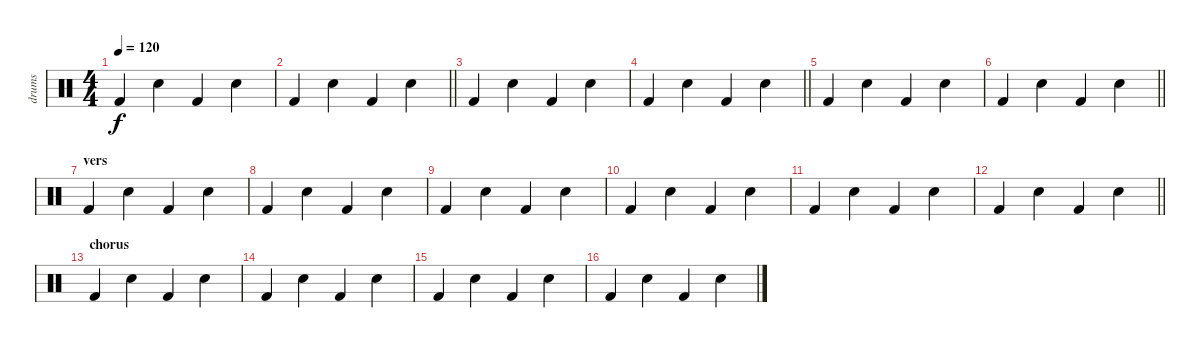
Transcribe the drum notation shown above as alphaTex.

\track ("drums" "drums") {instrument percussion}
\staff {score}
\articulation defaults
\ts (4 4)
\tempo 120
\clef neutral
\ks c "Kick (hit) 2".4{dy f} "Snare (hit) 2".4 "Kick (hit) 2".4 "Snare (hit) 2".4
|
\barLineRight lightlight "Kick (hit) 2".4 "Snare (hit) 2".4 "Kick (hit) 2".4 "Snare (hit) 2".4
|
"Kick (hit) 2".4 "Snare (hit) 2".4 "Kick (hit) 2".4 "Snare (hit) 2".4 |
\barLineRight lightlight "Kick (hit) 2".4 "Snare (hit) 2".4 "Kick (hit) 2".4 "Snare (hit) 2".4
|
"Kick (hit) 2".4 "Snare (hit) 2".4 "Kick (hit) 2".4 "Snare (hit) 2".4 |
\barLineRight lightlight "Kick (hit) 2".4 "Snare (hit) 2".4 "Kick (hit) 2".4 "Snare (hit) 2".4
|
\section ("" "vers")
"Kick (hit) 2".4 "Snare (hit) 2".4 "Kick (hit) 2".4 "Snare (hit) 2".4 |
"Kick (hit) 2".4 "Snare (hit) 2".4 "Kick (hit) 2".4 "Snare (hit) 2".4 |
"Kick (hit) 2".4 "Snare (hit) 2".4 "Kick (hit) 2".4 "Snare (hit) 2".4 |
"Kick (hit) 2".4 "Snare (hit) 2".4 "Kick (hit) 2".4 "Snare (hit) 2".4 |
"Kick (hit) 2".4 "Snare (hit) 2".4 "Kick (hit) 2".4 "Snare (hit) 2".4 |
\barLineRight lightlight "Kick (hit) 2".4 "Snare (hit) 2".4 "Kick (hit) 2".4 "Snare (hit) 2".4
|
\section ("" "chorus")
"Kick (hit) 2".4 "Snare (hit) 2".4 "Kick (hit) 2".4 "Snare (hit) 2".4 |
"Kick (hit) 2".4 "Snare (hit) 2".4 "Kick (hit) 2".4 "Snare (hit) 2".4 |
"Kick (hit) 2".4 "Snare (hit) 2".4 "Kick (hit) 2".4 "Snare (hit) 2".4 |
"Kick (hit) 2".4 "Snare (hit) 2".4 "Kick (hit) 2".4 "Snare (hit) 2".4
